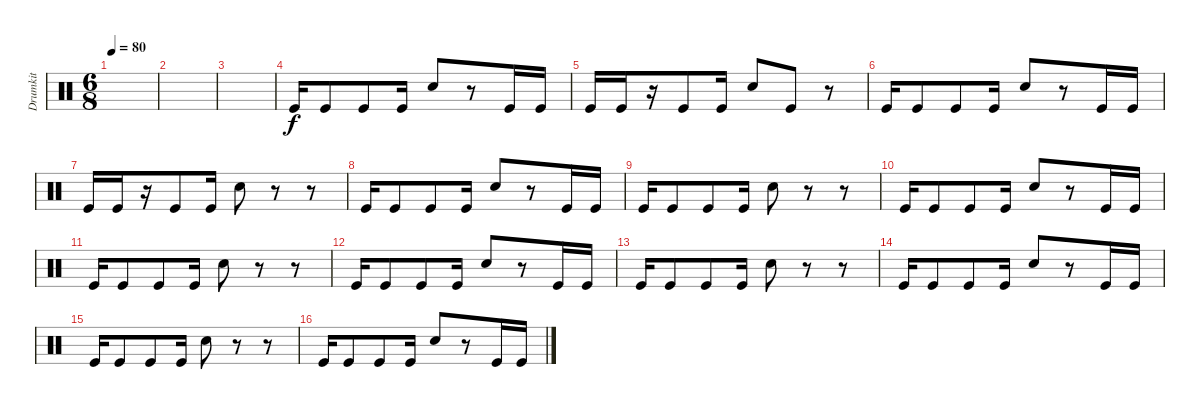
\track ("Drumkit" "Drumkit") {instrument percussion}
\staff {score}
\articulation defaults
\ts (6 8)
\tempo 80
\clef neutral
\ks c
|
|
|
"Kick (hit)".16 "Kick (hit)".8 "Kick (hit)".8 "Kick (hit)".16 "Snare (hit) 2".8 r.8 "Kick (hit)".16 "Kick (hit)".16 |
"Kick (hit)".16 "Kick (hit)".16 r.16 "Kick (hit)".8 "Kick (hit)".16 "Snare (hit) 2".8 "Kick (hit)".8 r.8 |
"Kick (hit)".16 "Kick (hit)".8 "Kick (hit)".8 "Kick (hit)".16 "Snare (hit) 2".8 r.8 "Kick (hit)".16 "Kick (hit)".16 |
"Kick (hit)".16 "Kick (hit)".16 r.16 "Kick (hit)".8 "Kick (hit)".16 "Snare (hit) 2".8 r.8 r.8 |
"Kick (hit)".16 "Kick (hit)".8 "Kick (hit)".8 "Kick (hit)".16 "Snare (hit) 2".8 r.8 "Kick (hit)".16 "Kick (hit)".16 |
"Kick (hit)".16 "Kick (hit)".8 "Kick (hit)".8 "Kick (hit)".16 "Snare (hit) 2".8 r.8 r.8 |
"Kick (hit)".16 "Kick (hit)".8 "Kick (hit)".8 "Kick (hit)".16 "Snare (hit) 2".8 r.8 "Kick (hit)".16 "Kick (hit)".16 |
"Kick (hit)".16 "Kick (hit)".8 "Kick (hit)".8 "Kick (hit)".16 "Snare (hit) 2".8 r.8 r.8 |
"Kick (hit)".16 "Kick (hit)".8 "Kick (hit)".8 "Kick (hit)".16 "Snare (hit) 2".8 r.8 "Kick (hit)".16 "Kick (hit)".16 |
"Kick (hit)".16 "Kick (hit)".8 "Kick (hit)".8 "Kick (hit)".16 "Snare (hit) 2".8 r.8 r.8 |
"Kick (hit)".16 "Kick (hit)".8 "Kick (hit)".8 "Kick (hit)".16 "Snare (hit) 2".8 r.8 "Kick (hit)".16 "Kick (hit)".16 |
"Kick (hit)".16 "Kick (hit)".8 "Kick (hit)".8 "Kick (hit)".16 "Snare (hit) 2".8 r.8 r.8 |
"Kick (hit)".16 "Kick (hit)".8 "Kick (hit)".8 "Kick (hit)".16 "Snare (hit) 2".8 r.8 "Kick (hit)".16 "Kick (hit)".16
